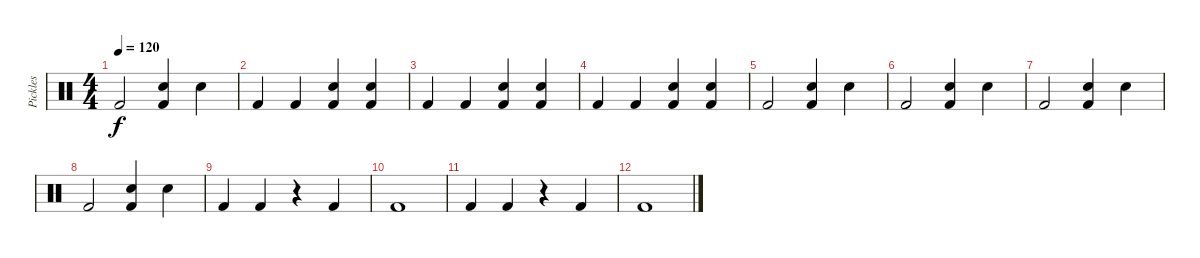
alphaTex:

\track ("Pickles" "Pickles") {instrument percussion}
\staff {score}
\articulation defaults
\ts (4 4)
\tempo 120
\clef neutral
\ks c "Kick (hit) 2".2{dy f}
("Snare (hit) 2" "Kick (hit) 2").4 "Electric Snare (hit)".4 |
"Kick (hit) 2".4 "Kick (hit) 2".4 ("Snare (hit) 2" "Kick (hit) 2").4 ("Electric Snare (hit)" "Kick (hit) 2").4 |
"Kick (hit) 2".4 "Kick (hit) 2".4 ("Snare (hit) 2" "Kick (hit) 2").4 ("Electric Snare (hit)" "Kick (hit) 2").4 |
"Kick (hit) 2".4 "Kick (hit) 2".4 ("Snare (hit) 2" "Kick (hit) 2").4 ("Electric Snare (hit)" "Kick (hit) 2").4 |
"Kick (hit) 2".2 ("Snare (hit) 2" "Kick (hit) 2").4 "Electric Snare (hit)".4 |
"Kick (hit) 2".2 ("Snare (hit) 2" "Kick (hit) 2").4 "Electric Snare (hit)".4 |
"Kick (hit) 2".2 ("Snare (hit) 2" "Kick (hit) 2").4 "Electric Snare (hit)".4 |
"Kick (hit) 2".2 ("Snare (hit) 2" "Kick (hit) 2").4 "Electric Snare (hit)".4 |
"Kick (hit) 2".4 "Kick (hit) 2".4 r.4 "Kick (hit) 2".4 |
"Kick (hit) 2".1 |
"Kick (hit) 2".4 "Kick (hit) 2".4 r.4 "Kick (hit) 2".4 |
"Kick (hit) 2".1
